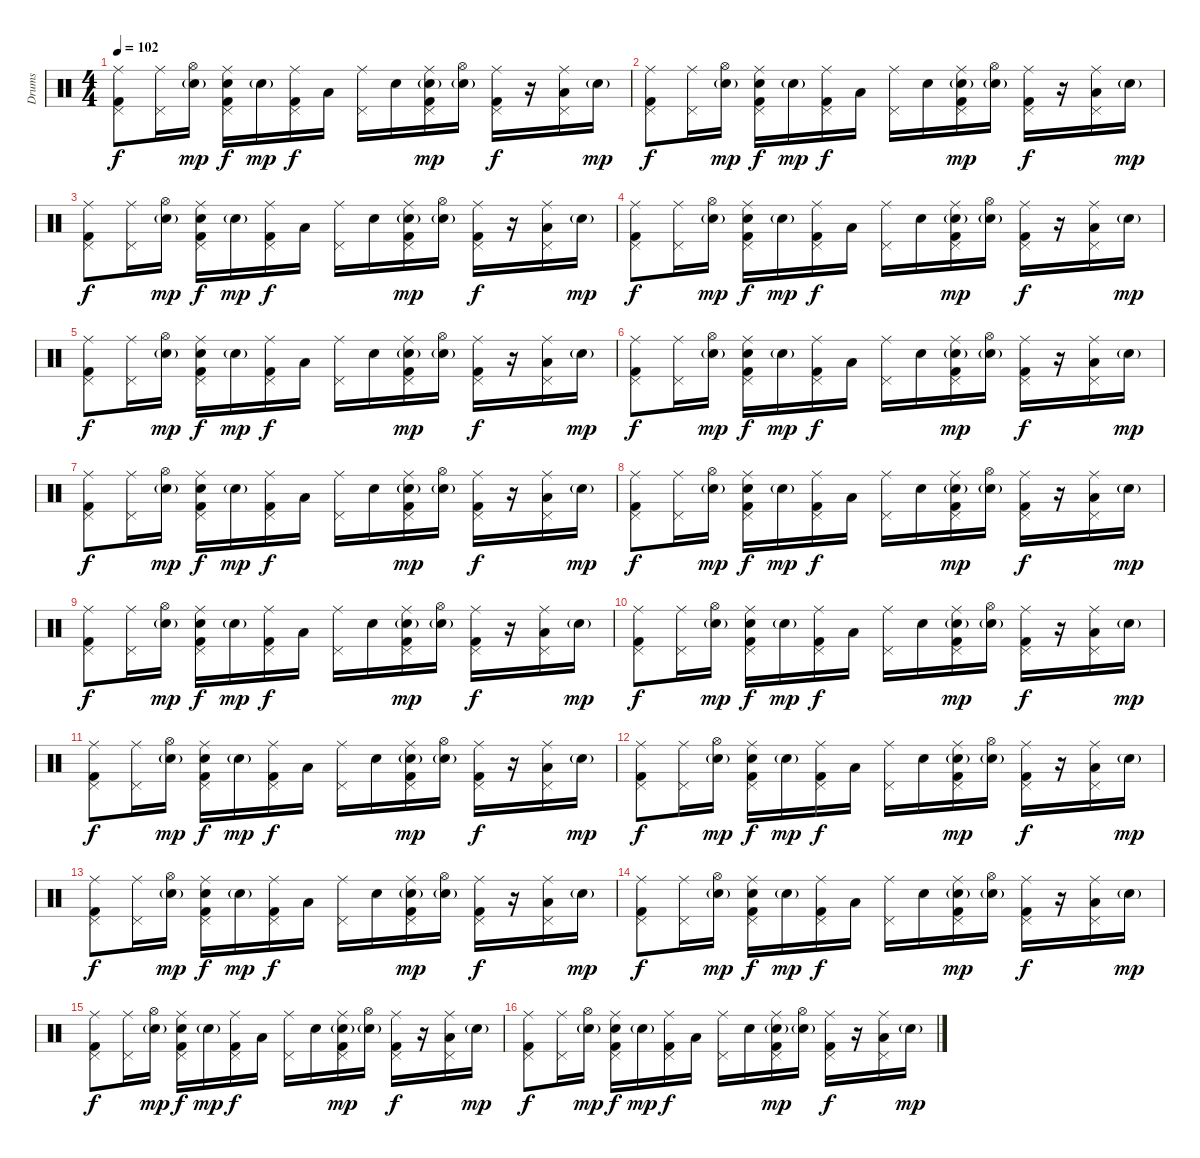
\track ("Drums" "Drums") {instrument percussion}
\staff {score}
\articulation defaults
\ts (4 4)
\tempo 102
\clef neutral
\ks c
("Ride (middle)" "Pedal Hi-Hat (hit)" "Kick (hit) 2").8{dy f} ("Ride (middle)" "Pedal Hi-Hat (hit)").16 ("Hi-Hat (open)" "Electric Snare (hit)"{g}).16{dy mp} ("Ride (middle)" "Pedal Hi-Hat (hit)" "Electric Snare (hit)" "Kick (hit) 2").16{dy f} "Electric Snare (hit)"{g}.16{dy mp} ("Ride (middle)" "Pedal Hi-Hat (hit)" "Kick (hit) 2").16{dy f} "Low Floor Tom (hit)".16 ("Ride (middle)" "Pedal Hi-Hat (hit)").16 "Electric Snare (hit)".16 ("Ride (middle)" "Pedal Hi-Hat (hit)" "Electric Snare (hit)"{g} "Kick (hit) 2").16{dy mp} ("Hi-Hat (open)" "Electric Snare (hit)"{g}).16 ("Ride (middle)" "Pedal Hi-Hat (hit)" "Kick (hit) 2").16{dy f} r.16 ("Ride (middle)" "Pedal Hi-Hat (hit)" "Low Floor Tom (hit)").16 "Electric Snare (hit)"{g}.16{dy mp} |
("Ride (middle)" "Pedal Hi-Hat (hit)" "Kick (hit) 2").8{dy f} ("Ride (middle)" "Pedal Hi-Hat (hit)").16 ("Hi-Hat (open)" "Electric Snare (hit)"{g}).16{dy mp} ("Ride (middle)" "Pedal Hi-Hat (hit)" "Electric Snare (hit)" "Kick (hit) 2").16{dy f} "Electric Snare (hit)"{g}.16{dy mp} ("Ride (middle)" "Pedal Hi-Hat (hit)" "Kick (hit) 2").16{dy f} "Low Floor Tom (hit)".16 ("Ride (middle)" "Pedal Hi-Hat (hit)").16 "Electric Snare (hit)".16 ("Ride (middle)" "Pedal Hi-Hat (hit)" "Electric Snare (hit)"{g} "Kick (hit) 2").16{dy mp} ("Hi-Hat (open)" "Electric Snare (hit)"{g}).16 ("Ride (middle)" "Pedal Hi-Hat (hit)" "Kick (hit) 2").16{dy f} r.16 ("Ride (middle)" "Pedal Hi-Hat (hit)" "Low Floor Tom (hit)").16 "Electric Snare (hit)"{g}.16{dy mp} |
("Ride (middle)" "Pedal Hi-Hat (hit)" "Kick (hit) 2").8{dy f} ("Ride (middle)" "Pedal Hi-Hat (hit)").16 ("Hi-Hat (open)" "Electric Snare (hit)"{g}).16{dy mp} ("Ride (middle)" "Pedal Hi-Hat (hit)" "Electric Snare (hit)" "Kick (hit) 2").16{dy f} "Electric Snare (hit)"{g}.16{dy mp} ("Ride (middle)" "Pedal Hi-Hat (hit)" "Kick (hit) 2").16{dy f} "Low Floor Tom (hit)".16 ("Ride (middle)" "Pedal Hi-Hat (hit)").16 "Electric Snare (hit)".16 ("Ride (middle)" "Pedal Hi-Hat (hit)" "Electric Snare (hit)"{g} "Kick (hit) 2").16{dy mp} ("Hi-Hat (open)" "Electric Snare (hit)"{g}).16 ("Ride (middle)" "Pedal Hi-Hat (hit)" "Kick (hit) 2").16{dy f} r.16 ("Ride (middle)" "Pedal Hi-Hat (hit)" "Low Floor Tom (hit)").16 "Electric Snare (hit)"{g}.16{dy mp} |
("Ride (middle)" "Pedal Hi-Hat (hit)" "Kick (hit) 2").8{dy f} ("Ride (middle)" "Pedal Hi-Hat (hit)").16 ("Hi-Hat (open)" "Electric Snare (hit)"{g}).16{dy mp} ("Ride (middle)" "Pedal Hi-Hat (hit)" "Electric Snare (hit)" "Kick (hit) 2").16{dy f} "Electric Snare (hit)"{g}.16{dy mp} ("Ride (middle)" "Pedal Hi-Hat (hit)" "Kick (hit) 2").16{dy f} "Low Floor Tom (hit)".16 ("Ride (middle)" "Pedal Hi-Hat (hit)").16 "Electric Snare (hit)".16 ("Ride (middle)" "Pedal Hi-Hat (hit)" "Electric Snare (hit)"{g} "Kick (hit) 2").16{dy mp} ("Hi-Hat (open)" "Electric Snare (hit)"{g}).16 ("Ride (middle)" "Pedal Hi-Hat (hit)" "Kick (hit) 2").16{dy f} r.16 ("Ride (middle)" "Pedal Hi-Hat (hit)" "Low Floor Tom (hit)").16 "Electric Snare (hit)"{g}.16{dy mp} |
("Ride (middle)" "Pedal Hi-Hat (hit)" "Kick (hit) 2").8{dy f} ("Ride (middle)" "Pedal Hi-Hat (hit)").16 ("Hi-Hat (open)" "Electric Snare (hit)"{g}).16{dy mp} ("Ride (middle)" "Pedal Hi-Hat (hit)" "Electric Snare (hit)" "Kick (hit) 2").16{dy f} "Electric Snare (hit)"{g}.16{dy mp} ("Ride (middle)" "Pedal Hi-Hat (hit)" "Kick (hit) 2").16{dy f} "Low Floor Tom (hit)".16 ("Ride (middle)" "Pedal Hi-Hat (hit)").16 "Electric Snare (hit)".16 ("Ride (middle)" "Pedal Hi-Hat (hit)" "Electric Snare (hit)"{g} "Kick (hit) 2").16{dy mp} ("Hi-Hat (open)" "Electric Snare (hit)"{g}).16 ("Ride (middle)" "Pedal Hi-Hat (hit)" "Kick (hit) 2").16{dy f} r.16 ("Ride (middle)" "Pedal Hi-Hat (hit)" "Low Floor Tom (hit)").16 "Electric Snare (hit)"{g}.16{dy mp} |
("Ride (middle)" "Pedal Hi-Hat (hit)" "Kick (hit) 2").8{dy f} ("Ride (middle)" "Pedal Hi-Hat (hit)").16 ("Hi-Hat (open)" "Electric Snare (hit)"{g}).16{dy mp} ("Ride (middle)" "Pedal Hi-Hat (hit)" "Electric Snare (hit)" "Kick (hit) 2").16{dy f} "Electric Snare (hit)"{g}.16{dy mp} ("Ride (middle)" "Pedal Hi-Hat (hit)" "Kick (hit) 2").16{dy f} "Low Floor Tom (hit)".16 ("Ride (middle)" "Pedal Hi-Hat (hit)").16 "Electric Snare (hit)".16 ("Ride (middle)" "Pedal Hi-Hat (hit)" "Electric Snare (hit)"{g} "Kick (hit) 2").16{dy mp} ("Hi-Hat (open)" "Electric Snare (hit)"{g}).16 ("Ride (middle)" "Pedal Hi-Hat (hit)" "Kick (hit) 2").16{dy f} r.16 ("Ride (middle)" "Pedal Hi-Hat (hit)" "Low Floor Tom (hit)").16 "Electric Snare (hit)"{g}.16{dy mp} |
("Ride (middle)" "Pedal Hi-Hat (hit)" "Kick (hit) 2").8{dy f} ("Ride (middle)" "Pedal Hi-Hat (hit)").16 ("Hi-Hat (open)" "Electric Snare (hit)"{g}).16{dy mp} ("Ride (middle)" "Pedal Hi-Hat (hit)" "Electric Snare (hit)" "Kick (hit) 2").16{dy f} "Electric Snare (hit)"{g}.16{dy mp} ("Ride (middle)" "Pedal Hi-Hat (hit)" "Kick (hit) 2").16{dy f} "Low Floor Tom (hit)".16 ("Ride (middle)" "Pedal Hi-Hat (hit)").16 "Electric Snare (hit)".16 ("Ride (middle)" "Pedal Hi-Hat (hit)" "Electric Snare (hit)"{g} "Kick (hit) 2").16{dy mp} ("Hi-Hat (open)" "Electric Snare (hit)"{g}).16 ("Ride (middle)" "Pedal Hi-Hat (hit)" "Kick (hit) 2").16{dy f} r.16 ("Ride (middle)" "Pedal Hi-Hat (hit)" "Low Floor Tom (hit)").16 "Electric Snare (hit)"{g}.16{dy mp} |
("Ride (middle)" "Pedal Hi-Hat (hit)" "Kick (hit) 2").8{dy f} ("Ride (middle)" "Pedal Hi-Hat (hit)").16 ("Hi-Hat (open)" "Electric Snare (hit)"{g}).16{dy mp} ("Ride (middle)" "Pedal Hi-Hat (hit)" "Electric Snare (hit)" "Kick (hit) 2").16{dy f} "Electric Snare (hit)"{g}.16{dy mp} ("Ride (middle)" "Pedal Hi-Hat (hit)" "Kick (hit) 2").16{dy f} "Low Floor Tom (hit)".16 ("Ride (middle)" "Pedal Hi-Hat (hit)").16 "Electric Snare (hit)".16 ("Ride (middle)" "Pedal Hi-Hat (hit)" "Electric Snare (hit)"{g} "Kick (hit) 2").16{dy mp} ("Hi-Hat (open)" "Electric Snare (hit)"{g}).16 ("Ride (middle)" "Pedal Hi-Hat (hit)" "Kick (hit) 2").16{dy f} r.16 ("Ride (middle)" "Pedal Hi-Hat (hit)" "Low Floor Tom (hit)").16 "Electric Snare (hit)"{g}.16{dy mp} |
("Ride (middle)" "Pedal Hi-Hat (hit)" "Kick (hit) 2").8{dy f} ("Ride (middle)" "Pedal Hi-Hat (hit)").16 ("Hi-Hat (open)" "Electric Snare (hit)"{g}).16{dy mp} ("Ride (middle)" "Pedal Hi-Hat (hit)" "Electric Snare (hit)" "Kick (hit) 2").16{dy f} "Electric Snare (hit)"{g}.16{dy mp} ("Ride (middle)" "Pedal Hi-Hat (hit)" "Kick (hit) 2").16{dy f} "Low Floor Tom (hit)".16 ("Ride (middle)" "Pedal Hi-Hat (hit)").16 "Electric Snare (hit)".16 ("Ride (middle)" "Pedal Hi-Hat (hit)" "Electric Snare (hit)"{g} "Kick (hit) 2").16{dy mp} ("Hi-Hat (open)" "Electric Snare (hit)"{g}).16 ("Ride (middle)" "Pedal Hi-Hat (hit)" "Kick (hit) 2").16{dy f} r.16 ("Ride (middle)" "Pedal Hi-Hat (hit)" "Low Floor Tom (hit)").16 "Electric Snare (hit)"{g}.16{dy mp} |
("Ride (middle)" "Pedal Hi-Hat (hit)" "Kick (hit) 2").8{dy f} ("Ride (middle)" "Pedal Hi-Hat (hit)").16 ("Hi-Hat (open)" "Electric Snare (hit)"{g}).16{dy mp} ("Ride (middle)" "Pedal Hi-Hat (hit)" "Electric Snare (hit)" "Kick (hit) 2").16{dy f} "Electric Snare (hit)"{g}.16{dy mp} ("Ride (middle)" "Pedal Hi-Hat (hit)" "Kick (hit) 2").16{dy f} "Low Floor Tom (hit)".16 ("Ride (middle)" "Pedal Hi-Hat (hit)").16 "Electric Snare (hit)".16 ("Ride (middle)" "Pedal Hi-Hat (hit)" "Electric Snare (hit)"{g} "Kick (hit) 2").16{dy mp} ("Hi-Hat (open)" "Electric Snare (hit)"{g}).16 ("Ride (middle)" "Pedal Hi-Hat (hit)" "Kick (hit) 2").16{dy f} r.16 ("Ride (middle)" "Pedal Hi-Hat (hit)" "Low Floor Tom (hit)").16 "Electric Snare (hit)"{g}.16{dy mp} |
("Ride (middle)" "Pedal Hi-Hat (hit)" "Kick (hit) 2").8{dy f} ("Ride (middle)" "Pedal Hi-Hat (hit)").16 ("Hi-Hat (open)" "Electric Snare (hit)"{g}).16{dy mp} ("Ride (middle)" "Pedal Hi-Hat (hit)" "Electric Snare (hit)" "Kick (hit) 2").16{dy f} "Electric Snare (hit)"{g}.16{dy mp} ("Ride (middle)" "Pedal Hi-Hat (hit)" "Kick (hit) 2").16{dy f} "Low Floor Tom (hit)".16 ("Ride (middle)" "Pedal Hi-Hat (hit)").16 "Electric Snare (hit)".16 ("Ride (middle)" "Pedal Hi-Hat (hit)" "Electric Snare (hit)"{g} "Kick (hit) 2").16{dy mp} ("Hi-Hat (open)" "Electric Snare (hit)"{g}).16 ("Ride (middle)" "Pedal Hi-Hat (hit)" "Kick (hit) 2").16{dy f} r.16 ("Ride (middle)" "Pedal Hi-Hat (hit)" "Low Floor Tom (hit)").16 "Electric Snare (hit)"{g}.16{dy mp} |
("Ride (middle)" "Pedal Hi-Hat (hit)" "Kick (hit) 2").8{dy f} ("Ride (middle)" "Pedal Hi-Hat (hit)").16 ("Hi-Hat (open)" "Electric Snare (hit)"{g}).16{dy mp} ("Ride (middle)" "Pedal Hi-Hat (hit)" "Electric Snare (hit)" "Kick (hit) 2").16{dy f} "Electric Snare (hit)"{g}.16{dy mp} ("Ride (middle)" "Pedal Hi-Hat (hit)" "Kick (hit) 2").16{dy f} "Low Floor Tom (hit)".16 ("Ride (middle)" "Pedal Hi-Hat (hit)").16 "Electric Snare (hit)".16 ("Ride (middle)" "Pedal Hi-Hat (hit)" "Electric Snare (hit)"{g} "Kick (hit) 2").16{dy mp} ("Hi-Hat (open)" "Electric Snare (hit)"{g}).16 ("Ride (middle)" "Pedal Hi-Hat (hit)" "Kick (hit) 2").16{dy f} r.16 ("Ride (middle)" "Pedal Hi-Hat (hit)" "Low Floor Tom (hit)").16 "Electric Snare (hit)"{g}.16{dy mp} |
("Ride (middle)" "Pedal Hi-Hat (hit)" "Kick (hit) 2").8{dy f} ("Ride (middle)" "Pedal Hi-Hat (hit)").16 ("Hi-Hat (open)" "Electric Snare (hit)"{g}).16{dy mp} ("Ride (middle)" "Pedal Hi-Hat (hit)" "Electric Snare (hit)" "Kick (hit) 2").16{dy f} "Electric Snare (hit)"{g}.16{dy mp} ("Ride (middle)" "Pedal Hi-Hat (hit)" "Kick (hit) 2").16{dy f} "Low Floor Tom (hit)".16 ("Ride (middle)" "Pedal Hi-Hat (hit)").16 "Electric Snare (hit)".16 ("Ride (middle)" "Pedal Hi-Hat (hit)" "Electric Snare (hit)"{g} "Kick (hit) 2").16{dy mp} ("Hi-Hat (open)" "Electric Snare (hit)"{g}).16 ("Ride (middle)" "Pedal Hi-Hat (hit)" "Kick (hit) 2").16{dy f} r.16 ("Ride (middle)" "Pedal Hi-Hat (hit)" "Low Floor Tom (hit)").16 "Electric Snare (hit)"{g}.16{dy mp} |
("Ride (middle)" "Pedal Hi-Hat (hit)" "Kick (hit) 2").8{dy f} ("Ride (middle)" "Pedal Hi-Hat (hit)").16 ("Hi-Hat (open)" "Electric Snare (hit)"{g}).16{dy mp} ("Ride (middle)" "Pedal Hi-Hat (hit)" "Electric Snare (hit)" "Kick (hit) 2").16{dy f} "Electric Snare (hit)"{g}.16{dy mp} ("Ride (middle)" "Pedal Hi-Hat (hit)" "Kick (hit) 2").16{dy f} "Low Floor Tom (hit)".16 ("Ride (middle)" "Pedal Hi-Hat (hit)").16 "Electric Snare (hit)".16 ("Ride (middle)" "Pedal Hi-Hat (hit)" "Electric Snare (hit)"{g} "Kick (hit) 2").16{dy mp} ("Hi-Hat (open)" "Electric Snare (hit)"{g}).16 ("Ride (middle)" "Pedal Hi-Hat (hit)" "Kick (hit) 2").16{dy f} r.16 ("Ride (middle)" "Pedal Hi-Hat (hit)" "Low Floor Tom (hit)").16 "Electric Snare (hit)"{g}.16{dy mp} |
("Ride (middle)" "Pedal Hi-Hat (hit)" "Kick (hit) 2").8{dy f} ("Ride (middle)" "Pedal Hi-Hat (hit)").16 ("Hi-Hat (open)" "Electric Snare (hit)"{g}).16{dy mp} ("Ride (middle)" "Pedal Hi-Hat (hit)" "Electric Snare (hit)" "Kick (hit) 2").16{dy f} "Electric Snare (hit)"{g}.16{dy mp} ("Ride (middle)" "Pedal Hi-Hat (hit)" "Kick (hit) 2").16{dy f} "Low Floor Tom (hit)".16 ("Ride (middle)" "Pedal Hi-Hat (hit)").16 "Electric Snare (hit)".16 ("Ride (middle)" "Pedal Hi-Hat (hit)" "Electric Snare (hit)"{g} "Kick (hit) 2").16{dy mp} ("Hi-Hat (open)" "Electric Snare (hit)"{g}).16 ("Ride (middle)" "Pedal Hi-Hat (hit)" "Kick (hit) 2").16{dy f} r.16 ("Ride (middle)" "Pedal Hi-Hat (hit)" "Low Floor Tom (hit)").16 "Electric Snare (hit)"{g}.16{dy mp} |
("Ride (middle)" "Pedal Hi-Hat (hit)" "Kick (hit) 2").8{dy f} ("Ride (middle)" "Pedal Hi-Hat (hit)").16 ("Hi-Hat (open)" "Electric Snare (hit)"{g}).16{dy mp} ("Ride (middle)" "Pedal Hi-Hat (hit)" "Electric Snare (hit)" "Kick (hit) 2").16{dy f} "Electric Snare (hit)"{g}.16{dy mp} ("Ride (middle)" "Pedal Hi-Hat (hit)" "Kick (hit) 2").16{dy f} "Low Floor Tom (hit)".16 ("Ride (middle)" "Pedal Hi-Hat (hit)").16 "Electric Snare (hit)".16 ("Ride (middle)" "Pedal Hi-Hat (hit)" "Electric Snare (hit)"{g} "Kick (hit) 2").16{dy mp} ("Hi-Hat (open)" "Electric Snare (hit)"{g}).16 ("Ride (middle)" "Pedal Hi-Hat (hit)" "Kick (hit) 2").16{dy f} r.16 ("Ride (middle)" "Pedal Hi-Hat (hit)" "Low Floor Tom (hit)").16 "Electric Snare (hit)"{g}.16{dy mp}
